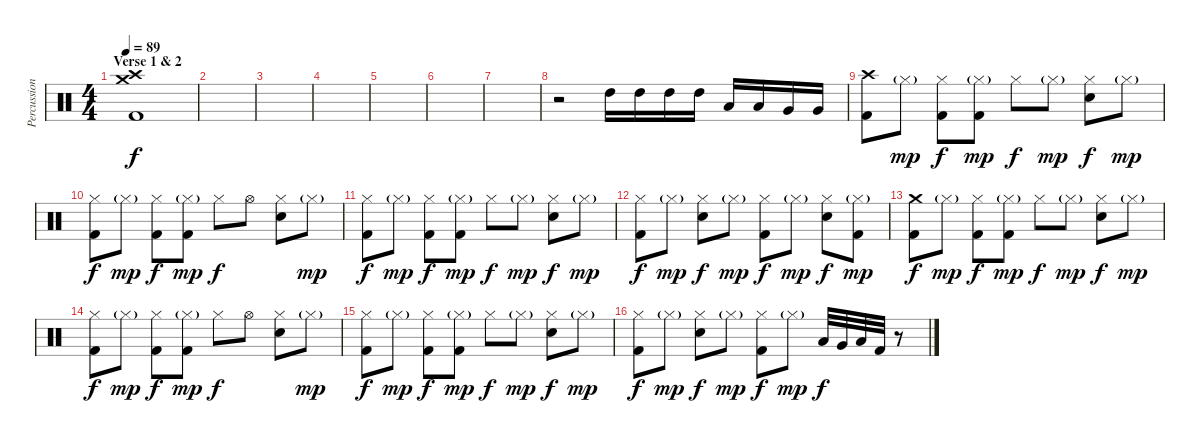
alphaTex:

\track ("Percussion" "Percussion") {instrument percussion}
\staff {score}
\articulation defaults
\ts (4 4)
\section ("" "Verse 1 & 2")
\tempo 89
\clef neutral
\ks c
("Crash medium (hit)" "Crash high (hit)" "Kick (hit) 2").1{dy f} |
|
|
|
|
|
|
r.2{volume 8} "High Tom (hit)".16{volume 16} "High Tom (hit)".16 "High Tom (hit)".16 "High Tom (hit)".16 "Low Tom (hit)".16 "Low Tom (hit)".16 "Very Low Tom (hit)".16 "Very Low Tom (hit)".16 |
("Crash high (hit)" "Kick (hit) 2").8 "Hi-Hat (closed)"{g}.8{dy mp} ("Hi-Hat (closed)" "Kick (hit) 2").8{dy f} ("Hi-Hat (closed)"{g} "Kick (hit) 2").8{dy mp} "Hi-Hat (closed)".8{dy f} "Hi-Hat (closed)"{g}.8{dy mp} ("Hi-Hat (closed)" "Electric Snare (hit)").8{dy f} "Hi-Hat (closed)"{g}.8{dy mp} |
("Hi-Hat (closed)" "Kick (hit) 2").8{dy f} "Hi-Hat (closed)"{g}.8{dy mp} ("Hi-Hat (closed)" "Kick (hit) 2").8{dy f} ("Hi-Hat (closed)"{g} "Kick (hit) 2").8{dy mp} "Hi-Hat (closed)".8{dy f} "Hi-Hat (open)".8 ("Hi-Hat (closed)" "Electric Snare (hit)").8 "Hi-Hat (closed)"{g}.8{dy mp} |
("Hi-Hat (closed)" "Kick (hit) 2").8{dy f} "Hi-Hat (closed)"{g}.8{dy mp} ("Hi-Hat (closed)" "Kick (hit) 2").8{dy f} ("Hi-Hat (closed)"{g} "Kick (hit) 2").8{dy mp} "Hi-Hat (closed)".8{dy f} "Hi-Hat (closed)"{g}.8{dy mp} ("Hi-Hat (closed)" "Electric Snare (hit)").8{dy f} "Hi-Hat (closed)"{g}.8{dy mp} |
("Hi-Hat (closed)" "Kick (hit) 2").8{dy f} "Hi-Hat (closed)"{g}.8{dy mp} ("Hi-Hat (closed)" "Electric Snare (hit)").8{dy f} "Hi-Hat (closed)"{g}.8{dy mp} ("Hi-Hat (closed)" "Kick (hit) 2").8{dy f} "Hi-Hat (closed)"{g}.8{dy mp} ("Hi-Hat (closed)" "Electric Snare (hit)").8{dy f} ("Hi-Hat (closed)"{g} "Kick (hit) 2").8{dy mp} |
("Crash medium (hit)" "Kick (hit) 2").8{dy f} "Hi-Hat (closed)"{g}.8{dy mp} ("Hi-Hat (closed)" "Kick (hit) 2").8{dy f} ("Hi-Hat (closed)"{g} "Kick (hit) 2").8{dy mp} "Hi-Hat (closed)".8{dy f} "Hi-Hat (closed)"{g}.8{dy mp} ("Hi-Hat (closed)" "Electric Snare (hit)").8{dy f} "Hi-Hat (closed)"{g}.8{dy mp} |
("Hi-Hat (closed)" "Kick (hit) 2").8{dy f} "Hi-Hat (closed)"{g}.8{dy mp} ("Hi-Hat (closed)" "Kick (hit) 2").8{dy f} ("Hi-Hat (closed)"{g} "Kick (hit) 2").8{dy mp} "Hi-Hat (closed)".8{dy f} "Hi-Hat (open)".8 ("Hi-Hat (closed)" "Electric Snare (hit)").8 "Hi-Hat (closed)"{g}.8{dy mp} |
("Hi-Hat (closed)" "Kick (hit) 2").8{dy f} "Hi-Hat (closed)"{g}.8{dy mp} ("Hi-Hat (closed)" "Kick (hit) 2").8{dy f} ("Hi-Hat (closed)"{g} "Kick (hit) 2").8{dy mp} "Hi-Hat (closed)".8{dy f} "Hi-Hat (closed)"{g}.8{dy mp} ("Hi-Hat (closed)" "Electric Snare (hit)").8{dy f} "Hi-Hat (closed)"{g}.8{dy mp} |
("Hi-Hat (closed)" "Kick (hit) 2").8{dy f} "Hi-Hat (closed)"{g}.8{dy mp} ("Hi-Hat (closed)" "Electric Snare (hit)").8{dy f} "Hi-Hat (closed)"{g}.8{dy mp} ("Hi-Hat (closed)" "Kick (hit) 2").8{dy f} "Hi-Hat (closed)"{g}.8{dy mp} "Low Tom (hit)".32{dy f} "Very Low Tom (hit)".32 "Low Floor Tom (hit)".32 "Kick (hit) 2".32 r.8
